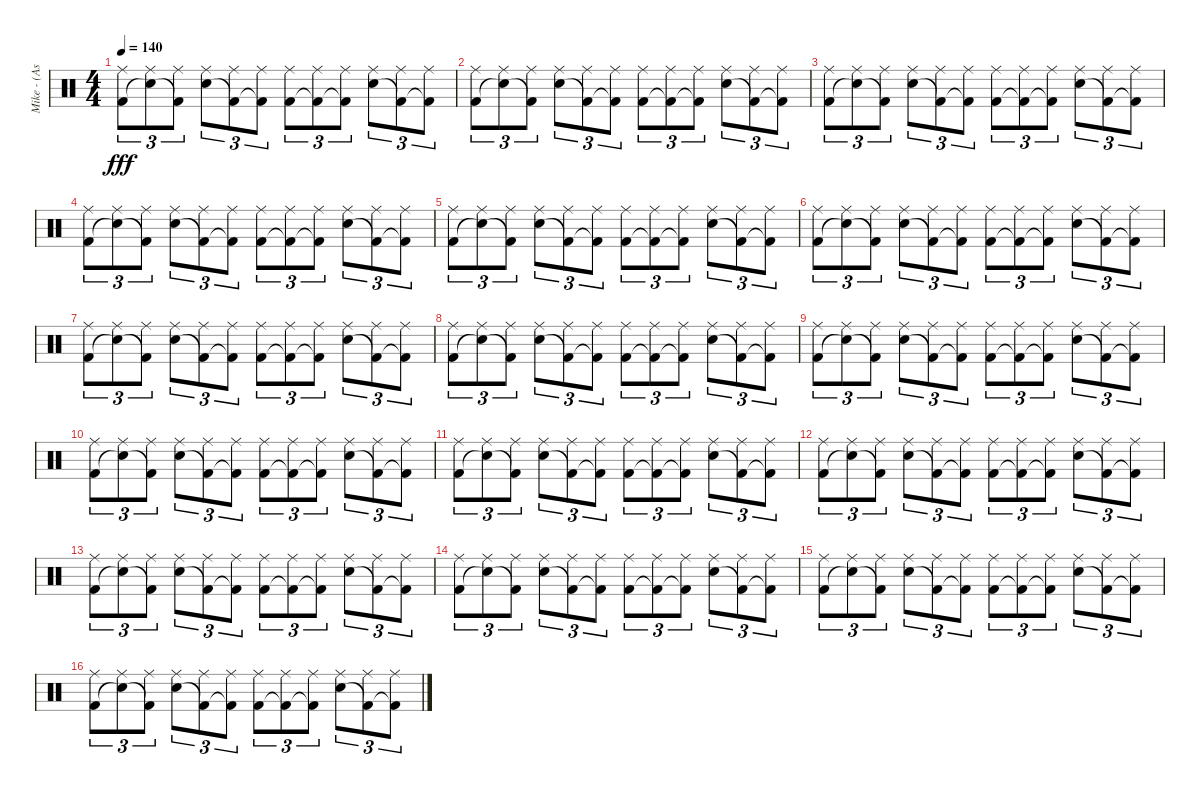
\track ("Mike - (Assault and Battery)" "Mike - (As") {instrument percussion}
\staff {score}
\articulation defaults
\ts (4 4)
\tempo 140
\clef neutral
\ks c
("Ride (middle)" "Kick (hit) 2").8{tu (3 2) dy fff} ("Ride (middle)" "Snare (hit) 2"{t}).8{tu (3 2)} ("Ride (middle)" "Kick (hit) 2"{t}).8{tu (3 2)} ("Ride (middle)" "Snare (hit) 2").8{tu (3 2)} ("Ride (middle)" "Kick (hit) 2"{t}).8{tu (3 2)} ("Ride (middle)" "Kick (hit) 2"{t}).8{tu (3 2)} ("Ride (middle)" "Kick (hit) 2").8{tu (3 2)} ("Ride (middle)" "Kick (hit) 2"{t}).8{tu (3 2)} ("Ride (middle)" "Kick (hit) 2"{t}).8{tu (3 2)} ("Ride (middle)" "Snare (hit) 2").8{tu (3 2)} ("Ride (middle)" "Kick (hit) 2"{t}).8{tu (3 2)} ("Ride (middle)" "Kick (hit) 2"{t}).8{tu (3 2)} |
("Ride (middle)" "Kick (hit) 2").8{tu (3 2)} ("Ride (middle)" "Snare (hit) 2"{t}).8{tu (3 2)} ("Ride (middle)" "Kick (hit) 2"{t}).8{tu (3 2)} ("Ride (middle)" "Snare (hit) 2").8{tu (3 2)} ("Ride (middle)" "Kick (hit) 2"{t}).8{tu (3 2)} ("Ride (middle)" "Kick (hit) 2"{t}).8{tu (3 2)} ("Ride (middle)" "Kick (hit) 2").8{tu (3 2)} ("Ride (middle)" "Kick (hit) 2"{t}).8{tu (3 2)} ("Ride (middle)" "Kick (hit) 2"{t}).8{tu (3 2)} ("Ride (middle)" "Snare (hit) 2").8{tu (3 2)} ("Ride (middle)" "Kick (hit) 2"{t}).8{tu (3 2)} ("Ride (middle)" "Kick (hit) 2"{t}).8{tu (3 2)} |
("Ride (middle)" "Kick (hit) 2").8{tu (3 2)} ("Ride (middle)" "Snare (hit) 2"{t}).8{tu (3 2)} ("Ride (middle)" "Kick (hit) 2"{t}).8{tu (3 2)} ("Ride (middle)" "Snare (hit) 2").8{tu (3 2)} ("Ride (middle)" "Kick (hit) 2"{t}).8{tu (3 2)} ("Ride (middle)" "Kick (hit) 2"{t}).8{tu (3 2)} ("Ride (middle)" "Kick (hit) 2").8{tu (3 2)} ("Ride (middle)" "Kick (hit) 2"{t}).8{tu (3 2)} ("Ride (middle)" "Kick (hit) 2"{t}).8{tu (3 2)} ("Ride (middle)" "Snare (hit) 2").8{tu (3 2)} ("Ride (middle)" "Kick (hit) 2"{t}).8{tu (3 2)} ("Ride (middle)" "Kick (hit) 2"{t}).8{tu (3 2)} |
("Ride (middle)" "Kick (hit) 2").8{tu (3 2)} ("Ride (middle)" "Snare (hit) 2"{t}).8{tu (3 2)} ("Ride (middle)" "Kick (hit) 2"{t}).8{tu (3 2)} ("Ride (middle)" "Snare (hit) 2").8{tu (3 2)} ("Ride (middle)" "Kick (hit) 2"{t}).8{tu (3 2)} ("Ride (middle)" "Kick (hit) 2"{t}).8{tu (3 2)} ("Ride (middle)" "Kick (hit) 2").8{tu (3 2)} ("Ride (middle)" "Kick (hit) 2"{t}).8{tu (3 2)} ("Ride (middle)" "Kick (hit) 2"{t}).8{tu (3 2)} ("Ride (middle)" "Snare (hit) 2").8{tu (3 2)} ("Ride (middle)" "Kick (hit) 2"{t}).8{tu (3 2)} ("Ride (middle)" "Kick (hit) 2"{t}).8{tu (3 2)} |
("Ride (middle)" "Kick (hit) 2").8{tu (3 2)} ("Ride (middle)" "Snare (hit) 2"{t}).8{tu (3 2)} ("Ride (middle)" "Kick (hit) 2"{t}).8{tu (3 2)} ("Ride (middle)" "Snare (hit) 2").8{tu (3 2)} ("Ride (middle)" "Kick (hit) 2"{t}).8{tu (3 2)} ("Ride (middle)" "Kick (hit) 2"{t}).8{tu (3 2)} ("Ride (middle)" "Kick (hit) 2").8{tu (3 2)} ("Ride (middle)" "Kick (hit) 2"{t}).8{tu (3 2)} ("Ride (middle)" "Kick (hit) 2"{t}).8{tu (3 2)} ("Ride (middle)" "Snare (hit) 2").8{tu (3 2)} ("Ride (middle)" "Kick (hit) 2"{t}).8{tu (3 2)} ("Ride (middle)" "Kick (hit) 2"{t}).8{tu (3 2)} |
("Ride (middle)" "Kick (hit) 2").8{tu (3 2)} ("Ride (middle)" "Snare (hit) 2"{t}).8{tu (3 2)} ("Ride (middle)" "Kick (hit) 2"{t}).8{tu (3 2)} ("Ride (middle)" "Snare (hit) 2").8{tu (3 2)} ("Ride (middle)" "Kick (hit) 2"{t}).8{tu (3 2)} ("Ride (middle)" "Kick (hit) 2"{t}).8{tu (3 2)} ("Ride (middle)" "Kick (hit) 2").8{tu (3 2)} ("Ride (middle)" "Kick (hit) 2"{t}).8{tu (3 2)} ("Ride (middle)" "Kick (hit) 2"{t}).8{tu (3 2)} ("Ride (middle)" "Snare (hit) 2").8{tu (3 2)} ("Ride (middle)" "Kick (hit) 2"{t}).8{tu (3 2)} ("Ride (middle)" "Kick (hit) 2"{t}).8{tu (3 2)} |
("Ride (middle)" "Kick (hit) 2").8{tu (3 2)} ("Ride (middle)" "Snare (hit) 2"{t}).8{tu (3 2)} ("Ride (middle)" "Kick (hit) 2"{t}).8{tu (3 2)} ("Ride (middle)" "Snare (hit) 2").8{tu (3 2)} ("Ride (middle)" "Kick (hit) 2"{t}).8{tu (3 2)} ("Ride (middle)" "Kick (hit) 2"{t}).8{tu (3 2)} ("Ride (middle)" "Kick (hit) 2").8{tu (3 2)} ("Ride (middle)" "Kick (hit) 2"{t}).8{tu (3 2)} ("Ride (middle)" "Kick (hit) 2"{t}).8{tu (3 2)} ("Ride (middle)" "Snare (hit) 2").8{tu (3 2)} ("Ride (middle)" "Kick (hit) 2"{t}).8{tu (3 2)} ("Ride (middle)" "Kick (hit) 2"{t}).8{tu (3 2)} |
("Ride (middle)" "Kick (hit) 2").8{tu (3 2)} ("Ride (middle)" "Snare (hit) 2"{t}).8{tu (3 2)} ("Ride (middle)" "Kick (hit) 2"{t}).8{tu (3 2)} ("Ride (middle)" "Snare (hit) 2").8{tu (3 2)} ("Ride (middle)" "Kick (hit) 2"{t}).8{tu (3 2)} ("Ride (middle)" "Kick (hit) 2"{t}).8{tu (3 2)} ("Ride (middle)" "Kick (hit) 2").8{tu (3 2)} ("Ride (middle)" "Kick (hit) 2"{t}).8{tu (3 2)} ("Ride (middle)" "Kick (hit) 2"{t}).8{tu (3 2)} ("Ride (middle)" "Snare (hit) 2").8{tu (3 2)} ("Ride (middle)" "Kick (hit) 2"{t}).8{tu (3 2)} ("Ride (middle)" "Kick (hit) 2"{t}).8{tu (3 2)} |
("Ride (middle)" "Kick (hit) 2").8{tu (3 2)} ("Ride (middle)" "Snare (hit) 2"{t}).8{tu (3 2)} ("Ride (middle)" "Kick (hit) 2"{t}).8{tu (3 2)} ("Ride (middle)" "Snare (hit) 2").8{tu (3 2)} ("Ride (middle)" "Kick (hit) 2"{t}).8{tu (3 2)} ("Ride (middle)" "Kick (hit) 2"{t}).8{tu (3 2)} ("Ride (middle)" "Kick (hit) 2").8{tu (3 2)} ("Ride (middle)" "Kick (hit) 2"{t}).8{tu (3 2)} ("Ride (middle)" "Kick (hit) 2"{t}).8{tu (3 2)} ("Ride (middle)" "Snare (hit) 2").8{tu (3 2)} ("Ride (middle)" "Kick (hit) 2"{t}).8{tu (3 2)} ("Ride (middle)" "Kick (hit) 2"{t}).8{tu (3 2)} |
("Ride (middle)" "Kick (hit) 2").8{tu (3 2)} ("Ride (middle)" "Snare (hit) 2"{t}).8{tu (3 2)} ("Ride (middle)" "Kick (hit) 2"{t}).8{tu (3 2)} ("Ride (middle)" "Snare (hit) 2").8{tu (3 2)} ("Ride (middle)" "Kick (hit) 2"{t}).8{tu (3 2)} ("Ride (middle)" "Kick (hit) 2"{t}).8{tu (3 2)} ("Ride (middle)" "Kick (hit) 2").8{tu (3 2)} ("Ride (middle)" "Kick (hit) 2"{t}).8{tu (3 2)} ("Ride (middle)" "Kick (hit) 2"{t}).8{tu (3 2)} ("Ride (middle)" "Snare (hit) 2").8{tu (3 2)} ("Ride (middle)" "Kick (hit) 2"{t}).8{tu (3 2)} ("Ride (middle)" "Kick (hit) 2"{t}).8{tu (3 2)} |
("Ride (middle)" "Kick (hit) 2").8{tu (3 2)} ("Ride (middle)" "Snare (hit) 2"{t}).8{tu (3 2)} ("Ride (middle)" "Kick (hit) 2"{t}).8{tu (3 2)} ("Ride (middle)" "Snare (hit) 2").8{tu (3 2)} ("Ride (middle)" "Kick (hit) 2"{t}).8{tu (3 2)} ("Ride (middle)" "Kick (hit) 2"{t}).8{tu (3 2)} ("Ride (middle)" "Kick (hit) 2").8{tu (3 2)} ("Ride (middle)" "Kick (hit) 2"{t}).8{tu (3 2)} ("Ride (middle)" "Kick (hit) 2"{t}).8{tu (3 2)} ("Ride (middle)" "Snare (hit) 2").8{tu (3 2)} ("Ride (middle)" "Kick (hit) 2"{t}).8{tu (3 2)} ("Ride (middle)" "Kick (hit) 2"{t}).8{tu (3 2)} |
("Ride (middle)" "Kick (hit) 2").8{tu (3 2)} ("Ride (middle)" "Snare (hit) 2"{t}).8{tu (3 2)} ("Ride (middle)" "Kick (hit) 2"{t}).8{tu (3 2)} ("Ride (middle)" "Snare (hit) 2").8{tu (3 2)} ("Ride (middle)" "Kick (hit) 2"{t}).8{tu (3 2)} ("Ride (middle)" "Kick (hit) 2"{t}).8{tu (3 2)} ("Ride (middle)" "Kick (hit) 2").8{tu (3 2)} ("Ride (middle)" "Kick (hit) 2"{t}).8{tu (3 2)} ("Ride (middle)" "Kick (hit) 2"{t}).8{tu (3 2)} ("Ride (middle)" "Snare (hit) 2").8{tu (3 2)} ("Ride (middle)" "Kick (hit) 2"{t}).8{tu (3 2)} ("Ride (middle)" "Kick (hit) 2"{t}).8{tu (3 2)} |
("Ride (middle)" "Kick (hit) 2").8{tu (3 2)} ("Ride (middle)" "Snare (hit) 2"{t}).8{tu (3 2)} ("Ride (middle)" "Kick (hit) 2"{t}).8{tu (3 2)} ("Ride (middle)" "Snare (hit) 2").8{tu (3 2)} ("Ride (middle)" "Kick (hit) 2"{t}).8{tu (3 2)} ("Ride (middle)" "Kick (hit) 2"{t}).8{tu (3 2)} ("Ride (middle)" "Kick (hit) 2").8{tu (3 2)} ("Ride (middle)" "Kick (hit) 2"{t}).8{tu (3 2)} ("Ride (middle)" "Kick (hit) 2"{t}).8{tu (3 2)} ("Ride (middle)" "Snare (hit) 2").8{tu (3 2)} ("Ride (middle)" "Kick (hit) 2"{t}).8{tu (3 2)} ("Ride (middle)" "Kick (hit) 2"{t}).8{tu (3 2)} |
("Ride (middle)" "Kick (hit) 2").8{tu (3 2)} ("Ride (middle)" "Snare (hit) 2"{t}).8{tu (3 2)} ("Ride (middle)" "Kick (hit) 2"{t}).8{tu (3 2)} ("Ride (middle)" "Snare (hit) 2").8{tu (3 2)} ("Ride (middle)" "Kick (hit) 2"{t}).8{tu (3 2)} ("Ride (middle)" "Kick (hit) 2"{t}).8{tu (3 2)} ("Ride (middle)" "Kick (hit) 2").8{tu (3 2)} ("Ride (middle)" "Kick (hit) 2"{t}).8{tu (3 2)} ("Ride (middle)" "Kick (hit) 2"{t}).8{tu (3 2)} ("Ride (middle)" "Snare (hit) 2").8{tu (3 2)} ("Ride (middle)" "Kick (hit) 2"{t}).8{tu (3 2)} ("Ride (middle)" "Kick (hit) 2"{t}).8{tu (3 2)} |
("Ride (middle)" "Kick (hit) 2").8{tu (3 2)} ("Ride (middle)" "Snare (hit) 2"{t}).8{tu (3 2)} ("Ride (middle)" "Kick (hit) 2"{t}).8{tu (3 2)} ("Ride (middle)" "Snare (hit) 2").8{tu (3 2)} ("Ride (middle)" "Kick (hit) 2"{t}).8{tu (3 2)} ("Ride (middle)" "Kick (hit) 2"{t}).8{tu (3 2)} ("Ride (middle)" "Kick (hit) 2").8{tu (3 2)} ("Ride (middle)" "Kick (hit) 2"{t}).8{tu (3 2)} ("Ride (middle)" "Kick (hit) 2"{t}).8{tu (3 2)} ("Ride (middle)" "Snare (hit) 2").8{tu (3 2)} ("Ride (middle)" "Kick (hit) 2"{t}).8{tu (3 2)} ("Ride (middle)" "Kick (hit) 2"{t}).8{tu (3 2)} |
("Ride (middle)" "Kick (hit) 2").8{tu (3 2)} ("Ride (middle)" "Snare (hit) 2"{t}).8{tu (3 2)} ("Ride (middle)" "Kick (hit) 2"{t}).8{tu (3 2)} ("Ride (middle)" "Snare (hit) 2").8{tu (3 2)} ("Ride (middle)" "Kick (hit) 2"{t}).8{tu (3 2)} ("Ride (middle)" "Kick (hit) 2"{t}).8{tu (3 2)} ("Ride (middle)" "Kick (hit) 2").8{tu (3 2)} ("Ride (middle)" "Kick (hit) 2"{t}).8{tu (3 2)} ("Ride (middle)" "Kick (hit) 2"{t}).8{tu (3 2)} ("Ride (middle)" "Snare (hit) 2").8{tu (3 2)} ("Ride (middle)" "Kick (hit) 2"{t}).8{tu (3 2)} ("Ride (middle)" "Kick (hit) 2"{t}).8{tu (3 2)}
